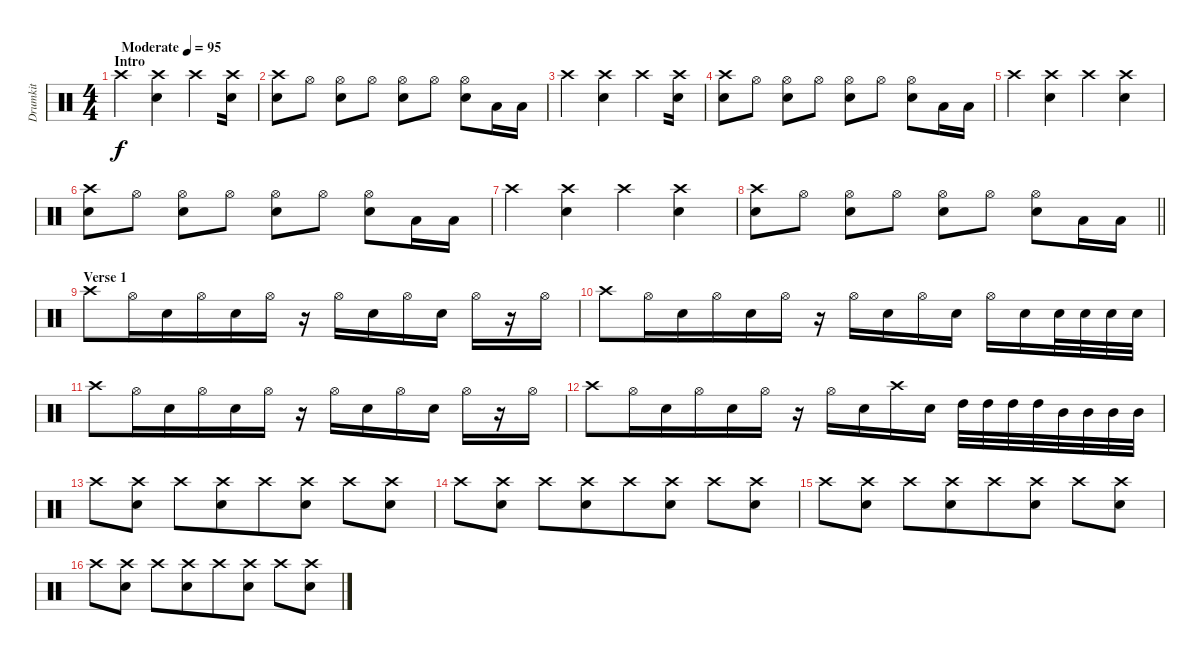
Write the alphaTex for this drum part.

\track ("Drumkit" "Drumkit") {instrument percussion}
\staff {score}
\articulation defaults
\ts (4 4)
\section ("" "Intro")
\tempo (95 "Moderate")
\clef neutral
\ks c "Crash high (hit)".4{dy f beam merge}
("Crash high (hit)" "Electric Snare (hit)").4 "Crash high (hit)".4{beam merge} ("Crash high (hit)" "Electric Snare (hit)").16 |
("Crash high (hit)" "Electric Snare (hit)").8{beam merge} "Hi-Hat (open)".8 ("Hi-Hat (open)" "Electric Snare (hit)").8 "Hi-Hat (open)".8 ("Hi-Hat (open)" "Electric Snare (hit)").8{beam merge} "Hi-Hat (open)".8 ("Hi-Hat (open)" "Electric Snare (hit)").8{beam merge} "Low Floor Tom (hit)".16{beam merge} "Low Floor Tom (hit)".16 |
"Crash high (hit)".4{beam merge} ("Crash high (hit)" "Electric Snare (hit)").4 "Crash high (hit)".4{beam merge} ("Crash high (hit)" "Electric Snare (hit)").16 |
("Crash high (hit)" "Electric Snare (hit)").8{beam merge} "Hi-Hat (open)".8 ("Hi-Hat (open)" "Electric Snare (hit)").8 "Hi-Hat (open)".8 ("Hi-Hat (open)" "Electric Snare (hit)").8{beam merge} "Hi-Hat (open)".8 ("Hi-Hat (open)" "Electric Snare (hit)").8{beam merge} "Low Floor Tom (hit)".16{beam merge} "Low Floor Tom (hit)".16 |
"Crash high (hit)".4{beam merge} ("Crash high (hit)" "Electric Snare (hit)").4 "Crash high (hit)".4{beam merge} ("Crash high (hit)" "Electric Snare (hit)").4 |
("Crash high (hit)" "Electric Snare (hit)").8{beam merge} "Hi-Hat (open)".8 ("Hi-Hat (open)" "Electric Snare (hit)").8 "Hi-Hat (open)".8 ("Hi-Hat (open)" "Electric Snare (hit)").8{beam merge} "Hi-Hat (open)".8 ("Hi-Hat (open)" "Electric Snare (hit)").8{beam merge} "Low Floor Tom (hit)".16{beam merge} "Low Floor Tom (hit)".16 |
"Crash high (hit)".4{beam merge} ("Crash high (hit)" "Electric Snare (hit)").4 "Crash high (hit)".4{beam merge} ("Crash high (hit)" "Electric Snare (hit)").4 |
\barLineRight lightlight
("Crash high (hit)" "Electric Snare (hit)").8{beam merge} "Hi-Hat (open)".8 ("Hi-Hat (open)" "Electric Snare (hit)").8 "Hi-Hat (open)".8 ("Hi-Hat (open)" "Electric Snare (hit)").8{beam merge} "Hi-Hat (open)".8 ("Hi-Hat (open)" "Electric Snare (hit)").8{beam merge} "Low Floor Tom (hit)".16{beam merge} "Low Floor Tom (hit)".16 |
\section ("" "Verse 1")
"Crash high (hit)".8 "Hi-Hat (open)".16{beam merge} "Electric Snare (hit)".16{beam merge} "Hi-Hat (open)".16 "Electric Snare (hit)".16{beam merge} "Hi-Hat (open)".16 r.16 "Hi-Hat (open)".16 "Electric Snare (hit)".16 "Hi-Hat (open)".16 "Electric Snare (hit)".16 "Hi-Hat (open)".16{beam merge} r.16 "Hi-Hat (open)".16 |
"Crash high (hit)".8 "Hi-Hat (open)".16{beam merge} "Electric Snare (hit)".16{beam merge} "Hi-Hat (open)".16 "Electric Snare (hit)".16{beam merge} "Hi-Hat (open)".16 r.16 "Hi-Hat (open)".16{beam merge} "Electric Snare (hit)".16 "Hi-Hat (open)".16 "Electric Snare (hit)".16 "Hi-Hat (open)".16{beam merge} "Electric Snare (hit)".16 "Electric Snare (hit)".32 "Electric Snare (hit)".32 "Electric Snare (hit)".32{beam merge} "Electric Snare (hit)".32 |
"Crash high (hit)".8 "Hi-Hat (open)".16{beam merge} "Electric Snare (hit)".16{beam merge} "Hi-Hat (open)".16 "Electric Snare (hit)".16{beam merge} "Hi-Hat (open)".16 r.16 "Hi-Hat (open)".16 "Electric Snare (hit)".16 "Hi-Hat (open)".16 "Electric Snare (hit)".16 "Hi-Hat (open)".16{beam merge} r.16 "Hi-Hat (open)".16 |
"Crash high (hit)".8 "Hi-Hat (open)".16{beam merge} "Electric Snare (hit)".16{beam merge} "Hi-Hat (open)".16 "Electric Snare (hit)".16{beam merge} "Hi-Hat (open)".16 r.16 "Hi-Hat (open)".16{beam merge} "Electric Snare (hit)".16 "Crash high (hit)".16 "Electric Snare (hit)".16 "High Tom (hit)".32 "High Tom (hit)".32 "High Tom (hit)".32{beam merge} "High Tom (hit)".32 "Mid Tom (hit)".32 "Mid Tom (hit)".32 "Mid Tom (hit)".32{beam merge} "Mid Tom (hit)".32 |
"Crash high (hit)".8 ("Crash high (hit)" "Electric Snare (hit)").8 "Crash high (hit)".8 ("Crash high (hit)" "Electric Snare (hit)").8{beam merge} "Crash high (hit)".8 ("Crash high (hit)" "Electric Snare (hit)").8 "Crash high (hit)".8{beam merge} ("Crash high (hit)" "Electric Snare (hit)").8 |
"Crash high (hit)".8 ("Crash high (hit)" "Electric Snare (hit)").8 "Crash high (hit)".8 ("Crash high (hit)" "Electric Snare (hit)").8{beam merge} "Crash high (hit)".8 ("Crash high (hit)" "Electric Snare (hit)").8 "Crash high (hit)".8{beam merge} ("Crash high (hit)" "Electric Snare (hit)").8 |
"Crash high (hit)".8 ("Crash high (hit)" "Electric Snare (hit)").8 "Crash high (hit)".8 ("Crash high (hit)" "Electric Snare (hit)").8{beam merge} "Crash high (hit)".8 ("Crash high (hit)" "Electric Snare (hit)").8 "Crash high (hit)".8{beam merge} ("Crash high (hit)" "Electric Snare (hit)").8 |
"Crash high (hit)".8 ("Crash high (hit)" "Electric Snare (hit)").8 "Crash high (hit)".8 ("Crash high (hit)" "Electric Snare (hit)").8{beam merge} "Crash high (hit)".8 ("Crash high (hit)" "Electric Snare (hit)").8 "Crash high (hit)".8{beam merge} ("Crash high (hit)" "Electric Snare (hit)").8
